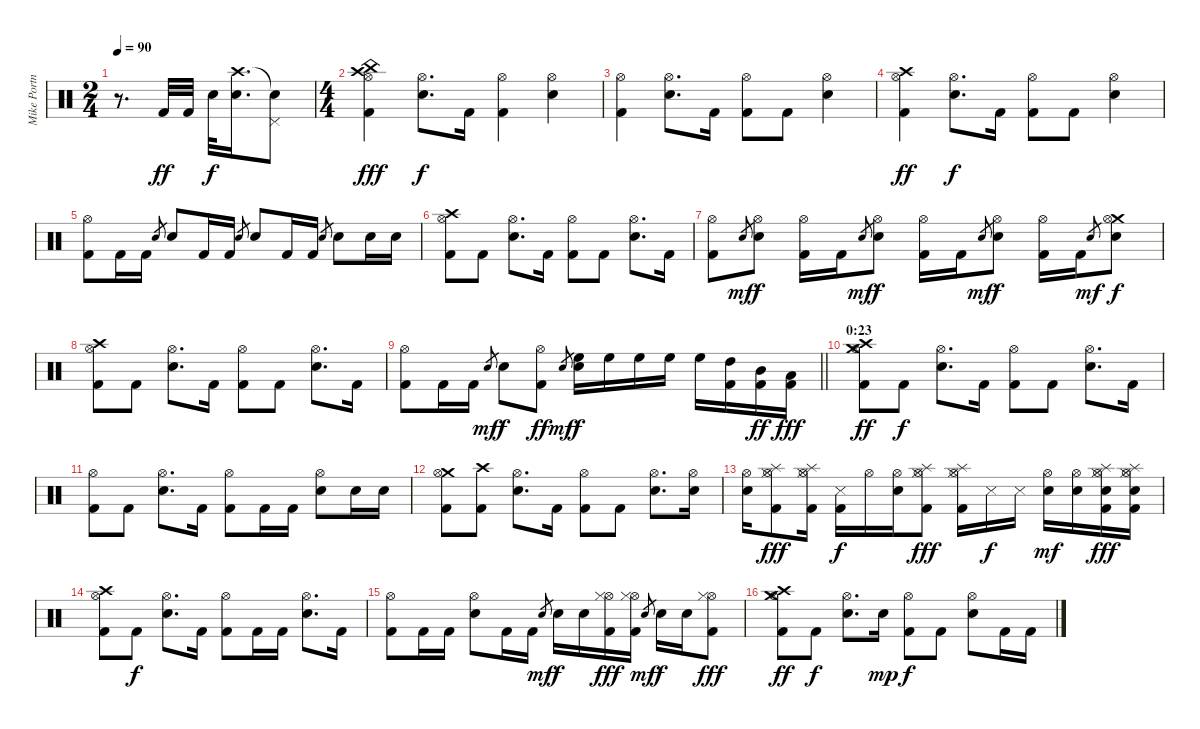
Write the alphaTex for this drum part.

\track ("Mike Portnoy (Drums)" "Mike Portn") {instrument percussion}
\staff {score}
\articulation defaults
\ts (2 4)
\tempo 90
\clef neutral
\ks c
r.8{d dy ff} "Kick (hit) 2".32 "Kick (hit) 2".32 "Electric Snare (hit)".32{dy f} ("Crash high (hit)" "Electric Snare (hit)").16{d} ("Snare (hit)"{t} "Pedal Hi-Hat (hit)").8 |
\ts (4 4)
("China (hit)" "Hi-Hat (open)" "Crash high (hit)" "Kick (hit) 2").4{dy fff} ("Hi-Hat (open)" "Electric Snare (hit)").8{d dy f} "Kick (hit) 2".16 ("Hi-Hat (open)" "Kick (hit) 2").4 ("Hi-Hat (open)" "Electric Snare (hit)").4 |
("Hi-Hat (open)" "Kick (hit) 2").4 ("Hi-Hat (open)" "Electric Snare (hit)").8{d} "Kick (hit) 2".16 ("Hi-Hat (open)" "Kick (hit) 2").8 "Kick (hit) 2".8 ("Hi-Hat (open)" "Electric Snare (hit)").4 |
("Hi-Hat (open)" "Crash high (hit)" "Kick (hit) 2").4{dy ff} ("Hi-Hat (open)" "Electric Snare (hit)").8{d dy f} "Kick (hit) 2".16 ("Hi-Hat (open)" "Kick (hit) 2").8 "Kick (hit) 2".8 ("Hi-Hat (open)" "Electric Snare (hit)").4 |
("Hi-Hat (open)" "Kick (hit) 2").8 "Kick (hit) 2".16 "Kick (hit) 2".16 "Electric Snare (hit)".8{gr} "Electric Snare (hit)".8 "Kick (hit) 2".16 "Kick (hit) 2".16 "Electric Snare (hit)".8{gr} "Electric Snare (hit)".8 "Kick (hit) 2".16 "Kick (hit) 2".16 "Electric Snare (hit)".8{gr} "Electric Snare (hit)".8 "Electric Snare (hit)".16 "Electric Snare (hit)".16 |
("Hi-Hat (open)" "Crash high (hit)" "Kick (hit) 2").8 "Kick (hit) 2".8 ("Hi-Hat (open)" "Electric Snare (hit)").8{d} "Kick (hit) 2".16 ("Hi-Hat (open)" "Kick (hit) 2").8 "Kick (hit) 2".8 ("Hi-Hat (open)" "Electric Snare (hit)").8{d} "Kick (hit) 2".16 |
("Hi-Hat (open)" "Kick (hit) 2").8 "Electric Snare (hit)".8{gr dy mf} ("Hi-Hat (open)" "Electric Snare (hit)").8{dy f} ("Hi-Hat (open)" "Kick (hit) 2").16 "Kick (hit) 2".16 "Electric Snare (hit)".8{gr dy mf} ("Hi-Hat (open)" "Electric Snare (hit)").8{dy f} ("Hi-Hat (open)" "Kick (hit) 2").16 "Kick (hit) 2".16 "Electric Snare (hit)".8{gr dy mf} ("Hi-Hat (open)" "Electric Snare (hit)").8{dy f} ("Hi-Hat (open)" "Kick (hit) 2").16 "Kick (hit) 2".16 "Electric Snare (hit)".8{gr dy mf} ("Crash medium (hit)" "Hi-Hat (open)" "Electric Snare (hit)").8{dy f} |
("Crash high (hit)" "Hi-Hat (open)" "Kick (hit) 2").8 "Kick (hit) 2".8 ("Hi-Hat (open)" "Electric Snare (hit)").8{d} "Kick (hit) 2".16 ("Hi-Hat (open)" "Kick (hit) 2").8 "Kick (hit) 2".8 ("Hi-Hat (open)" "Electric Snare (hit)").8{d} "Kick (hit) 2".16 |
\barLineRight lightlight
("Hi-Hat (open)" "Kick (hit) 2").8 "Kick (hit) 2".16 "Kick (hit) 2".16 "Electric Snare (hit)".8{gr dy mf} "Electric Snare (hit)".8{dy f} ("Hi-Hat (open)" "Kick (hit) 2").8{dy ff} "Electric Snare (hit)".8{gr dy mf} ("High Floor Tom (hit)" "Electric Snare (hit)").16{dy f} "High Floor Tom (hit)".16 "High Floor Tom (hit)".16 "High Floor Tom (hit)".16 "High Floor Tom (hit)".16 ("High Tom (hit)" "Kick (hit) 2").16 ("Mid Tom (hit)" "Kick (hit) 2").16{dy ff} ("Low Tom (hit)" "Kick (hit) 2").16{dy fff} |
\section ("" "0:23")
("Crash medium (hit)" "Hi-Hat (open)" "Crash high (hit)" "Kick (hit) 2").8{dy ff} "Kick (hit) 2".8{dy f} ("Hi-Hat (open)" "Electric Snare (hit)").8{d} "Kick (hit) 2".16 ("Hi-Hat (open)" "Kick (hit) 2").8 "Kick (hit) 2".8 ("Hi-Hat (open)" "Electric Snare (hit)").8{d} "Kick (hit) 2".16 |
("Hi-Hat (open)" "Kick (hit) 2").8 "Kick (hit) 2".8 ("Hi-Hat (open)" "Electric Snare (hit)").8{d} "Kick (hit) 2".16 ("Hi-Hat (open)" "Kick (hit) 2").8 "Kick (hit) 2".16 "Kick (hit) 2".16 ("Hi-Hat (open)" "Electric Snare (hit)").8 "Electric Snare (hit)".16 "Electric Snare (hit)".16 |
("Crash medium (hit)" "Hi-Hat (open)" "Kick (hit) 2").8 ("Crash high (hit)" "Kick (hit) 2").8 ("Hi-Hat (open)" "Electric Snare (hit)").8{d} "Kick (hit) 2".16 ("Hi-Hat (open)" "Kick (hit) 2").8 "Kick (hit) 2".8 ("Hi-Hat (open)" "Electric Snare (hit)").8{d} ("Hi-Hat (open)" "Electric Snare (hit)").16 |
("Hi-Hat (open)" "Electric Snare (hit)").16 ("Splash (hit)" "Hi-Hat (open)" "Hi-Hat (closed)" "Kick (hit) 2").8{dy fff} ("Splash (hit)" "Hi-Hat (open)" "Hi-Hat (closed)" "Kick (hit) 2").16 ("Snare (side stick) 3" "Kick (hit) 2").16{dy f} "Hi-Hat (open)".16 ("Hi-Hat (open)" "Electric Snare (hit)").16 ("Splash (hit)" "Hi-Hat (open)" "Hi-Hat (closed)" "Kick (hit) 2").8{dy fff} ("Splash (hit)" "Hi-Hat (open)" "Hi-Hat (closed)" "Kick (hit) 2").16 "Snare (side stick) 3".16{dy f} "Snare (side stick) 3".16 ("Hi-Hat (open)" "Electric Snare (hit)").16{dy mf} ("Hi-Hat (open)" "Electric Snare (hit)").16 ("Splash (hit)" "Hi-Hat (open)" "Hi-Hat (closed)" "Electric Snare (hit)" "Kick (hit) 2").16{dy fff} ("Splash (hit)" "Hi-Hat (open)" "Hi-Hat (closed)" "Electric Snare (hit)" "Kick (hit) 2").16 |
("Crash high (hit)" "Hi-Hat (open)" "Kick (hit) 2").8 "Kick (hit) 2".8{dy f} ("Hi-Hat (open)" "Electric Snare (hit)").8{d} "Kick (hit) 2".16 ("Hi-Hat (open)" "Kick (hit) 2").8 "Kick (hit) 2".16 "Kick (hit) 2".16 ("Hi-Hat (open)" "Electric Snare (hit)").8{d} "Kick (hit) 2".16 |
("Hi-Hat (open)" "Kick (hit) 2").8 "Kick (hit) 2".16 "Kick (hit) 2".16 ("Hi-Hat (open)" "Electric Snare (hit)").8 "Kick (hit) 2".16 "Kick (hit) 2".16 "Electric Snare (hit)".8{gr dy mf} "Electric Snare (hit)".16{dy f} "Electric Snare (hit)".16 ("Hi-Hat (open)" "Hi-Hat (closed)" "Kick (hit) 2").16{dy fff} ("Hi-Hat (open)" "Hi-Hat (closed)" "Kick (hit) 2").16 "Electric Snare (hit)".8{gr dy mf} "Electric Snare (hit)".16{dy f} "Electric Snare (hit)".16 ("Hi-Hat (open)" "Hi-Hat (closed)" "Kick (hit) 2").8{dy fff} |
("Crash medium (hit)" "Hi-Hat (open)" "Crash high (hit)" "Kick (hit) 2").8{dy ff} "Kick (hit) 2".8{dy f} ("Hi-Hat (open)" "Electric Snare (hit)").8{d} "Electric Snare (hit)".16{dy mp} ("Hi-Hat (open)" "Kick (hit) 2").8{dy f} "Kick (hit) 2".8 ("Hi-Hat (open)" "Electric Snare (hit)").8 "Kick (hit) 2".16 "Kick (hit) 2".16
